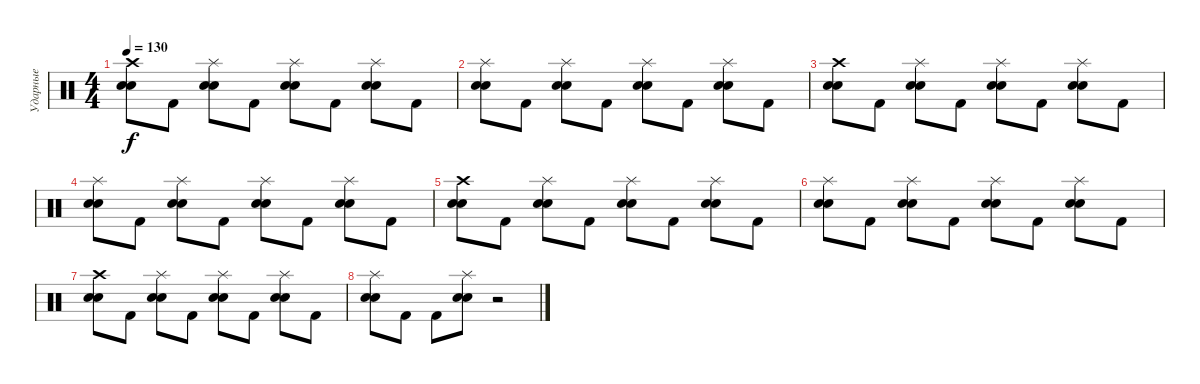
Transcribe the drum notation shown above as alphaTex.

\track ("Ударные" "Ударные") {instrument percussion}
\staff {score}
\articulation defaults
\ts (4 4)
\tempo 130
\clef neutral
\ks c
("Crash high (hit)" "Electric Snare (hit)" "Snare (hit) 2").8{dy f} "Kick (hit) 2".8 ("Splash (hit)" "Electric Snare (hit)" "Snare (hit) 2").8 "Kick (hit) 2".8 ("Splash (hit)" "Electric Snare (hit)" "Snare (hit) 2").8 "Kick (hit) 2".8 ("Splash (hit)" "Electric Snare (hit)" "Snare (hit) 2").8 "Kick (hit) 2".8 |
("Splash (hit)" "Electric Snare (hit)" "Snare (hit) 2").8 "Kick (hit) 2".8 ("Splash (hit)" "Electric Snare (hit)" "Snare (hit) 2").8 "Kick (hit) 2".8 ("Splash (hit)" "Electric Snare (hit)" "Snare (hit) 2").8 "Kick (hit) 2".8 ("Splash (hit)" "Electric Snare (hit)" "Snare (hit) 2").8 "Kick (hit) 2".8 |
("Crash high (hit)" "Electric Snare (hit)" "Snare (hit) 2").8 "Kick (hit) 2".8 ("Splash (hit)" "Electric Snare (hit)" "Snare (hit) 2").8 "Kick (hit) 2".8 ("Splash (hit)" "Electric Snare (hit)" "Snare (hit) 2").8 "Kick (hit) 2".8 ("Splash (hit)" "Electric Snare (hit)" "Snare (hit) 2").8 "Kick (hit) 2".8 |
("Splash (hit)" "Electric Snare (hit)" "Snare (hit) 2").8 "Kick (hit) 2".8 ("Splash (hit)" "Electric Snare (hit)" "Snare (hit) 2").8 "Kick (hit) 2".8 ("Splash (hit)" "Electric Snare (hit)" "Snare (hit) 2").8 "Kick (hit) 2".8 ("Splash (hit)" "Electric Snare (hit)" "Snare (hit) 2").8 "Kick (hit) 2".8 |
("Crash high (hit)" "Electric Snare (hit)" "Snare (hit) 2").8 "Kick (hit) 2".8 ("Splash (hit)" "Electric Snare (hit)" "Snare (hit) 2").8 "Kick (hit) 2".8 ("Splash (hit)" "Electric Snare (hit)" "Snare (hit) 2").8 "Kick (hit) 2".8 ("Splash (hit)" "Electric Snare (hit)" "Snare (hit) 2").8 "Kick (hit) 2".8 |
("Splash (hit)" "Electric Snare (hit)" "Snare (hit) 2").8 "Kick (hit) 2".8 ("Splash (hit)" "Electric Snare (hit)" "Snare (hit) 2").8 "Kick (hit) 2".8 ("Splash (hit)" "Electric Snare (hit)" "Snare (hit) 2").8 "Kick (hit) 2".8 ("Splash (hit)" "Electric Snare (hit)" "Snare (hit) 2").8 "Kick (hit) 2".8 |
("Crash high (hit)" "Electric Snare (hit)" "Snare (hit) 2").8 "Kick (hit) 2".8 ("Splash (hit)" "Electric Snare (hit)" "Snare (hit) 2").8 "Kick (hit) 2".8 ("Splash (hit)" "Electric Snare (hit)" "Snare (hit) 2").8 "Kick (hit) 2".8 ("Splash (hit)" "Electric Snare (hit)" "Snare (hit) 2").8 "Kick (hit) 2".8 |
("Splash (hit)" "Electric Snare (hit)" "Snare (hit) 2").8 "Kick (hit) 2".8 "Kick (hit) 2".8 ("Splash (hit)" "Electric Snare (hit)" "Snare (hit) 2").8 r.2
